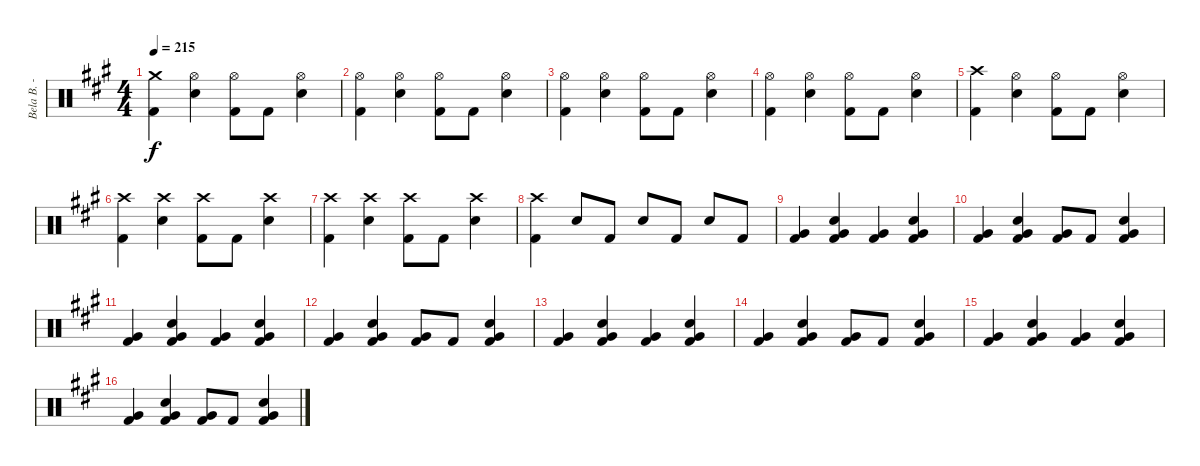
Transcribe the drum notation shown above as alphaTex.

\track ("Bela B. - Schlagzeug" "Bela B. - ") {instrument percussion}
\staff {score}
\articulation defaults
\ts (4 4)
\tempo 215
\clef neutral
\ks a
("Crash medium (hit)" "Kick (hit) 2").4{dy f} ("Hi-Hat (open)" "Snare (hit) 2").4 ("Hi-Hat (open)" "Kick (hit) 2").8 "Kick (hit) 2".8 ("Hi-Hat (open)" "Snare (hit) 2").4 |
("Hi-Hat (open)" "Kick (hit) 2").4 ("Hi-Hat (open)" "Snare (hit) 2").4 ("Hi-Hat (open)" "Kick (hit) 2").8 "Kick (hit) 2".8 ("Hi-Hat (open)" "Snare (hit) 2").4 |
("Hi-Hat (open)" "Kick (hit) 2").4 ("Hi-Hat (open)" "Snare (hit) 2").4 ("Hi-Hat (open)" "Kick (hit) 2").8 "Kick (hit) 2".8 ("Hi-Hat (open)" "Snare (hit) 2").4 |
("Hi-Hat (open)" "Kick (hit) 2").4 ("Hi-Hat (open)" "Snare (hit) 2").4 ("Hi-Hat (open)" "Kick (hit) 2").8 "Kick (hit) 2".8 ("Hi-Hat (open)" "Snare (hit) 2").4 |
("Crash high (hit)" "Kick (hit) 2").4 ("Hi-Hat (open)" "Snare (hit) 2").4 ("Hi-Hat (open)" "Kick (hit) 2").8 "Kick (hit) 2".8 ("Hi-Hat (open)" "Snare (hit) 2").4 |
("Crash high (hit)" "Kick (hit) 2").4 ("Crash high (hit)" "Snare (hit) 2").4 ("Crash high (hit)" "Kick (hit) 2").8 "Kick (hit) 2".8 ("Crash high (hit)" "Snare (hit) 2").4 |
("Crash high (hit)" "Kick (hit) 2").4 ("Crash high (hit)" "Snare (hit) 2").4 ("Crash high (hit)" "Kick (hit) 2").8 "Kick (hit) 2".8 ("Crash high (hit)" "Snare (hit) 2").4 |
("Crash high (hit)" "Kick (hit) 2").4 "Snare (hit) 2".8 "Kick (hit) 2".8 "Snare (hit) 2".8 "Kick (hit) 2".8 "Snare (hit) 2".8 "Kick (hit) 2".8 |
("Very Low Tom (hit)" "Kick (hit) 2").4 ("Snare (hit) 2" "Very Low Tom (hit)" "Kick (hit) 2").4 ("Very Low Tom (hit)" "Kick (hit) 2").4 ("Snare (hit) 2" "Very Low Tom (hit)" "Kick (hit) 2").4 |
("Very Low Tom (hit)" "Kick (hit) 2").4 ("Snare (hit) 2" "Very Low Tom (hit)" "Kick (hit) 2").4 ("Very Low Tom (hit)" "Kick (hit) 2").8 "Kick (hit) 2".8 ("Snare (hit) 2" "Very Low Tom (hit)" "Kick (hit) 2").4 |
("Very Low Tom (hit)" "Kick (hit) 2").4 ("Snare (hit) 2" "Very Low Tom (hit)" "Kick (hit) 2").4 ("Very Low Tom (hit)" "Kick (hit) 2").4 ("Snare (hit) 2" "Very Low Tom (hit)" "Kick (hit) 2").4 |
("Very Low Tom (hit)" "Kick (hit) 2").4 ("Snare (hit) 2" "Very Low Tom (hit)" "Kick (hit) 2").4 ("Very Low Tom (hit)" "Kick (hit) 2").8 "Kick (hit) 2".8 ("Snare (hit) 2" "Very Low Tom (hit)" "Kick (hit) 2").4 |
("Very Low Tom (hit)" "Kick (hit) 2").4 ("Snare (hit) 2" "Very Low Tom (hit)" "Kick (hit) 2").4 ("Very Low Tom (hit)" "Kick (hit) 2").4 ("Snare (hit) 2" "Very Low Tom (hit)" "Kick (hit) 2").4 |
("Very Low Tom (hit)" "Kick (hit) 2").4 ("Snare (hit) 2" "Very Low Tom (hit)" "Kick (hit) 2").4 ("Very Low Tom (hit)" "Kick (hit) 2").8 "Kick (hit) 2".8 ("Snare (hit) 2" "Very Low Tom (hit)" "Kick (hit) 2").4 |
("Very Low Tom (hit)" "Kick (hit) 2").4 ("Snare (hit) 2" "Very Low Tom (hit)" "Kick (hit) 2").4 ("Very Low Tom (hit)" "Kick (hit) 2").4 ("Snare (hit) 2" "Very Low Tom (hit)" "Kick (hit) 2").4 |
("Very Low Tom (hit)" "Kick (hit) 2").4 ("Snare (hit) 2" "Very Low Tom (hit)" "Kick (hit) 2").4 ("Very Low Tom (hit)" "Kick (hit) 2").8 "Kick (hit) 2".8 ("Snare (hit) 2" "Very Low Tom (hit)" "Kick (hit) 2").4
